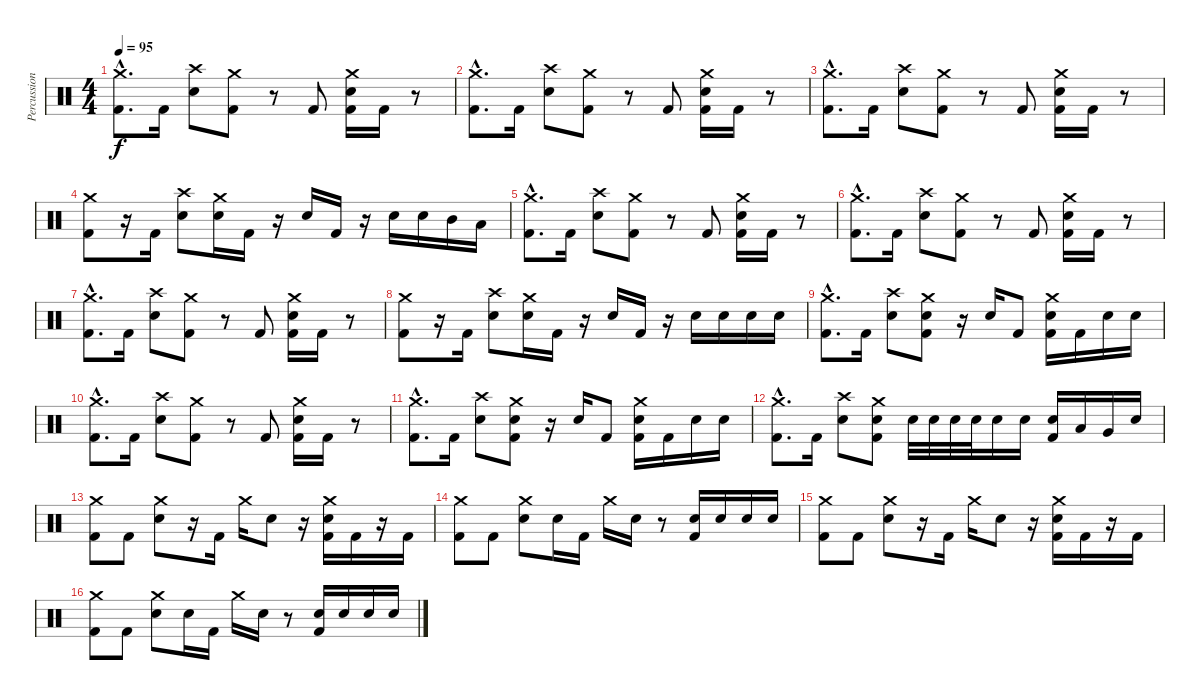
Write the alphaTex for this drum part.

\track ("Percussion" "Percussion") {instrument percussion}
\staff {score}
\articulation defaults
\ts (4 4)
\tempo 95
\clef neutral
\ks c
("Crash medium (hit)"{hac} "Kick (hit) 2"{hac}).8{d dy f} "Kick (hit) 2".16 ("Crash high (hit)" "Electric Snare (hit)").8 ("Crash medium (hit)" "Kick (hit) 2").8 r.8 "Kick (hit) 2".8 ("Crash medium (hit)" "Electric Snare (hit)" "Kick (hit) 2").16 "Kick (hit) 2".16 r.8 |
("Crash medium (hit)"{hac} "Kick (hit) 2"{hac}).8{d} "Kick (hit) 2".16 ("Crash high (hit)" "Electric Snare (hit)").8 ("Crash medium (hit)" "Kick (hit) 2").8 r.8 "Kick (hit) 2".8 ("Crash medium (hit)" "Electric Snare (hit)" "Kick (hit) 2").16 "Kick (hit) 2".16 r.8 |
("Crash medium (hit)"{hac} "Kick (hit) 2"{hac}).8{d} "Kick (hit) 2".16 ("Crash high (hit)" "Electric Snare (hit)").8 ("Crash medium (hit)" "Kick (hit) 2").8 r.8 "Kick (hit) 2".8 ("Crash medium (hit)" "Electric Snare (hit)" "Kick (hit) 2").16 "Kick (hit) 2".16 r.8 |
("Crash medium (hit)" "Kick (hit) 2").8 r.16 "Kick (hit) 2".16 ("Crash high (hit)" "Electric Snare (hit)").8 ("Crash medium (hit)" "Electric Snare (hit)").16 "Kick (hit) 2".16 r.16 "Electric Snare (hit)".16 "Kick (hit) 2".16 r.16 "Electric Snare (hit)".16 "Electric Snare (hit)".16 "Mid Tom (hit)".16 "Low Tom (hit)".16 |
("Crash medium (hit)"{hac} "Kick (hit) 2"{hac}).8{d} "Kick (hit) 2".16 ("Crash high (hit)" "Electric Snare (hit)").8 ("Crash medium (hit)" "Kick (hit) 2").8 r.8 "Kick (hit) 2".8 ("Crash medium (hit)" "Electric Snare (hit)" "Kick (hit) 2").16 "Kick (hit) 2".16 r.8 |
("Crash medium (hit)"{hac} "Kick (hit) 2"{hac}).8{d} "Kick (hit) 2".16 ("Crash high (hit)" "Electric Snare (hit)").8 ("Crash medium (hit)" "Kick (hit) 2").8 r.8 "Kick (hit) 2".8 ("Crash medium (hit)" "Electric Snare (hit)" "Kick (hit) 2").16 "Kick (hit) 2".16 r.8 |
("Crash medium (hit)"{hac} "Kick (hit) 2"{hac}).8{d} "Kick (hit) 2".16 ("Crash high (hit)" "Electric Snare (hit)").8 ("Crash medium (hit)" "Kick (hit) 2").8 r.8 "Kick (hit) 2".8 ("Crash medium (hit)" "Electric Snare (hit)" "Kick (hit) 2").16 "Kick (hit) 2".16 r.8 |
("Crash medium (hit)" "Kick (hit) 2").8 r.16 "Kick (hit) 2".16 ("Crash high (hit)" "Electric Snare (hit)").8 ("Crash medium (hit)" "Electric Snare (hit)").16 "Kick (hit) 2".16 r.16 "Electric Snare (hit)".16 "Kick (hit) 2".16 r.16 "Electric Snare (hit)".16 "Electric Snare (hit)".16 "Electric Snare (hit)".16 "Electric Snare (hit)".16 |
("Crash medium (hit)"{hac} "Kick (hit) 2"{hac}).8{d} "Kick (hit) 2".16 ("Crash high (hit)" "Electric Snare (hit)").8 ("Crash medium (hit)" "Electric Snare (hit)" "Kick (hit) 2").8 r.16 "Electric Snare (hit)".16 "Kick (hit) 2".8 ("Crash medium (hit)" "Electric Snare (hit)" "Kick (hit) 2").16 "Kick (hit) 2".16 "Electric Snare (hit)".16 "Electric Snare (hit)".16 |
("Crash medium (hit)"{hac} "Kick (hit) 2"{hac}).8{d} "Kick (hit) 2".16 ("Crash high (hit)" "Electric Snare (hit)").8 ("Crash medium (hit)" "Kick (hit) 2").8 r.8 "Kick (hit) 2".8 ("Crash medium (hit)" "Electric Snare (hit)" "Kick (hit) 2").16 "Kick (hit) 2".16 r.8 |
("Crash medium (hit)"{hac} "Kick (hit) 2"{hac}).8{d} "Kick (hit) 2".16 ("Crash high (hit)" "Electric Snare (hit)").8 ("Crash medium (hit)" "Electric Snare (hit)" "Kick (hit) 2").8 r.16 "Electric Snare (hit)".16 "Kick (hit) 2".8 ("Crash medium (hit)" "Electric Snare (hit)" "Kick (hit) 2").16 "Kick (hit) 2".16 "Electric Snare (hit)".16 "Electric Snare (hit)".16 |
("Crash medium (hit)"{hac} "Kick (hit) 2"{hac}).8{d} "Kick (hit) 2".16 ("Crash high (hit)" "Electric Snare (hit)").8 ("Crash medium (hit)" "Electric Snare (hit)" "Kick (hit) 2").8 "Electric Snare (hit)".32 "Electric Snare (hit)".32 "Electric Snare (hit)".32 "Electric Snare (hit)".32 "Electric Snare (hit)".16 "Electric Snare (hit)".16 ("Electric Snare (hit)" "Kick (hit) 2").16 "Low Tom (hit)".16 "Very Low Tom (hit)".16 "Electric Snare (hit)".16 |
("Crash medium (hit)" "Kick (hit) 2").8 "Kick (hit) 2".8 ("Crash medium (hit)" "Electric Snare (hit)").8 r.16 "Kick (hit) 2".16 "Crash medium (hit)".16 "Electric Snare (hit)".8 r.16 ("Crash medium (hit)" "Electric Snare (hit)" "Kick (hit) 2").16 "Kick (hit) 2".16 r.16 "Kick (hit) 2".16 |
("Crash medium (hit)" "Kick (hit) 2").8 "Kick (hit) 2".8 ("Crash medium (hit)" "Electric Snare (hit)").8 "Electric Snare (hit)".16 "Kick (hit) 2".16 "Crash medium (hit)".16 "Electric Snare (hit)".16 r.8 ("Electric Snare (hit)" "Kick (hit) 2").16 "Electric Snare (hit)".16 "Electric Snare (hit)".16 "Electric Snare (hit)".16 |
("Crash medium (hit)" "Kick (hit) 2").8 "Kick (hit) 2".8 ("Crash medium (hit)" "Electric Snare (hit)").8 r.16 "Kick (hit) 2".16 "Crash medium (hit)".16 "Electric Snare (hit)".8 r.16 ("Crash medium (hit)" "Electric Snare (hit)" "Kick (hit) 2").16 "Kick (hit) 2".16 r.16 "Kick (hit) 2".16 |
("Crash medium (hit)" "Kick (hit) 2").8 "Kick (hit) 2".8 ("Crash medium (hit)" "Electric Snare (hit)").8 "Electric Snare (hit)".16 "Kick (hit) 2".16 "Crash medium (hit)".16 "Electric Snare (hit)".16 r.8 ("Electric Snare (hit)" "Kick (hit) 2").16 "Electric Snare (hit)".16 "Electric Snare (hit)".16 "Electric Snare (hit)".16
